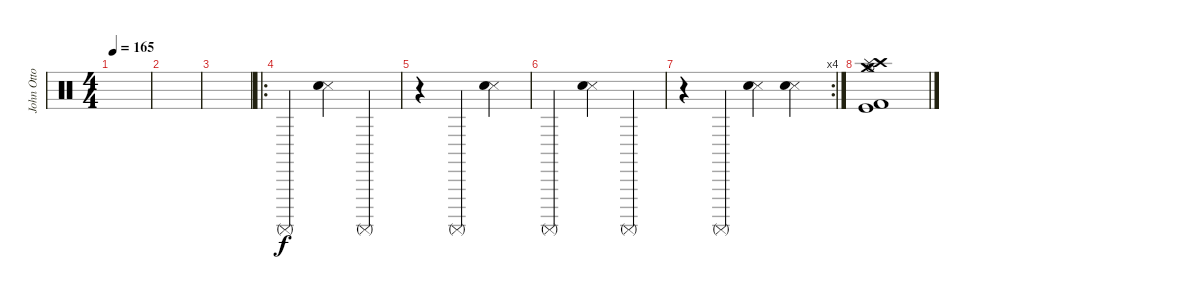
\track ("John Otto" "John Otto") {instrument percussion}
\staff {score}
\articulation defaults
\ts (4 4)
\tempo 165
\clef neutral
\ks c
|
|
|
\ro "Surdo (mute)".2
("Snare (side stick) 3" "Hand Clap (hit)").4 "Surdo (mute)".4 |
r.4 "Surdo (mute)".4 ("Snare (side stick) 3" "Hand Clap (hit)").4 |
"Surdo (mute)".2 ("Snare (side stick) 3" "Hand Clap (hit)").4 "Surdo (mute)".4 |
\rc 4
r.4 "Surdo (mute)".4 ("Snare (side stick) 3" "Hand Clap (hit)").4 ("Snare (side stick) 3" "Hand Clap (hit)").4 |
("Crash high (hit)" "Crash medium (hit)" "Splash (hit)" "Hi-Hat (open)" "Kick (hit)" "Kick (hit) 2").1
